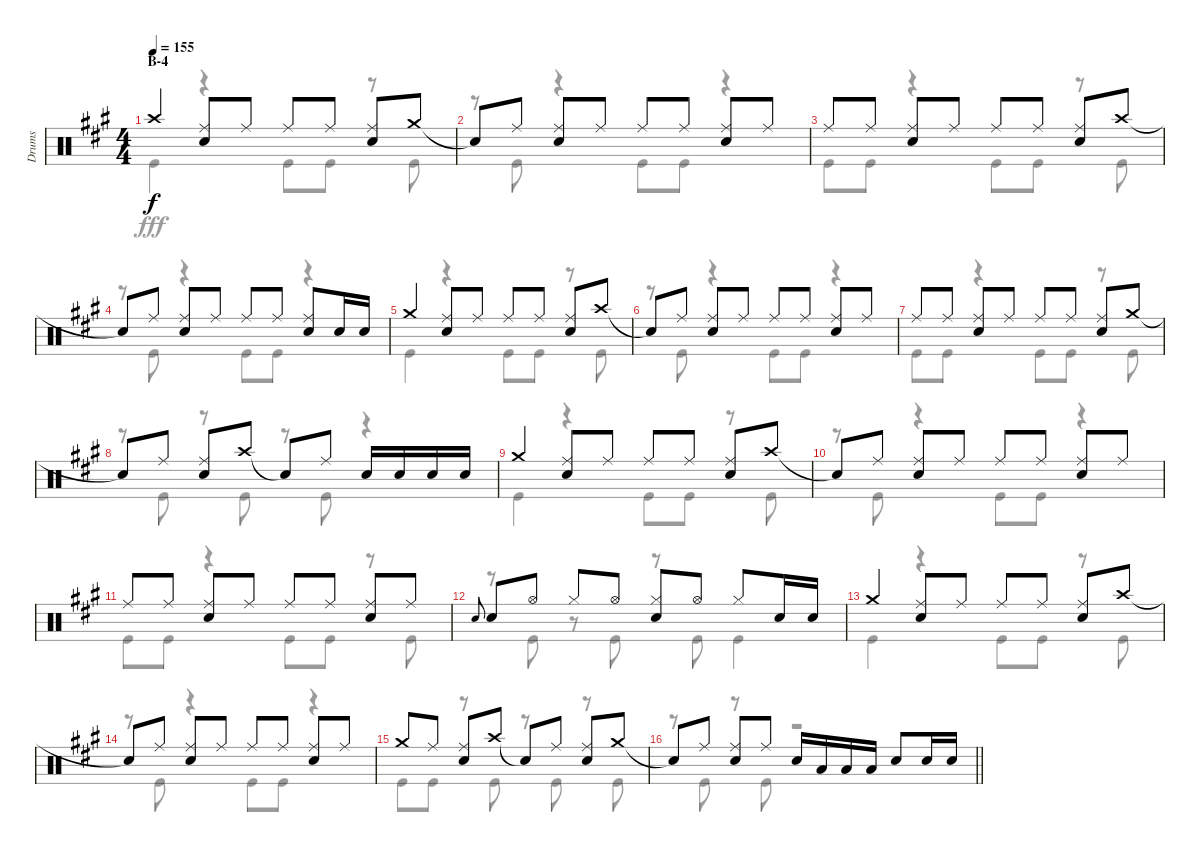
\track ("Drums" "Drums") {instrument percussion}
\staff {score}
\articulation defaults
\voice
\ts (4 4)
\section ("" "B-4")
\tempo 155
\clef neutral
\ks a "Crash high (hit)".4{dy f}
("Ride (middle)" "Snare (hit) 2").8 "Ride (middle)".8 "Ride (middle)".8 "Ride (middle)".8 ("Ride (middle)" "Snare (hit) 2").8 "Crash medium (hit)".8 |
"Snare (hit)"{t}.8 "Ride (middle)".8 ("Ride (middle)" "Snare (hit) 2").8 "Ride (middle)".8 "Ride (middle)".8 "Ride (middle)".8 ("Ride (middle)" "Snare (hit) 2").8 "Ride (middle)".8 |
"Ride (middle)".8 "Ride (middle)".8 ("Ride (middle)" "Snare (hit) 2").8 "Ride (middle)".8 "Ride (middle)".8 "Ride (middle)".8 ("Ride (middle)" "Snare (hit) 2").8 "Crash high (hit)".8 |
"Snare (hit)"{t}.8 "Ride (middle)".8 ("Ride (middle)" "Snare (hit) 2").8 "Ride (middle)".8 "Ride (middle)".8 "Ride (middle)".8 ("Ride (middle)" "Snare (hit) 2").8 "Snare (hit) 2".16 "Snare (hit) 2".16 |
"Crash medium (hit)".4 ("Ride (middle)" "Snare (hit) 2").8 "Ride (middle)".8 "Ride (middle)".8 "Ride (middle)".8 ("Ride (middle)" "Snare (hit) 2").8 "Crash high (hit)".8 |
"Snare (hit)"{t}.8 "Ride (middle)".8 ("Ride (middle)" "Snare (hit) 2").8 "Ride (middle)".8 "Ride (middle)".8 "Ride (middle)".8 ("Ride (middle)" "Snare (hit) 2").8 "Ride (middle)".8 |
"Ride (middle)".8 "Ride (middle)".8 ("Ride (middle)" "Snare (hit) 2").8 "Ride (middle)".8 "Ride (middle)".8 "Ride (middle)".8 ("Ride (middle)" "Snare (hit) 2").8 "Crash medium (hit)".8 |
"Snare (hit)"{t}.8 "Ride (middle)".8 ("Ride (middle)" "Snare (hit) 2").8 "Crash high (hit)".8 "Snare (hit)"{t}.8 "Ride (middle)".8 "Snare (hit) 2".16 "Snare (hit) 2".16 "Snare (hit) 2".16 "Snare (hit) 2".16 |
"Crash medium (hit)".4 ("Ride (middle)" "Snare (hit) 2").8 "Ride (middle)".8 "Ride (middle)".8 "Ride (middle)".8 ("Ride (middle)" "Snare (hit) 2").8 "Crash high (hit)".8 |
"Snare (hit)"{t}.8 "Ride (middle)".8 ("Ride (middle)" "Snare (hit) 2").8 "Ride (middle)".8 "Ride (middle)".8 "Ride (middle)".8 ("Ride (middle)" "Snare (hit) 2").8 "Ride (middle)".8 |
"Ride (middle)".8 "Ride (middle)".8 ("Ride (middle)" "Snare (hit) 2").8 "Ride (middle)".8 "Ride (middle)".8 "Ride (middle)".8 ("Ride (middle)" "Snare (hit) 2").8 "Ride (middle)".8 |
"Snare (hit) 2".8{gr onbeat} "Snare (hit) 2".8 "Hi-Hat (open)".8 "Hi-Hat (closed)".8 "Hi-Hat (open)".8 ("Hi-Hat (closed)" "Snare (hit) 2").8 "Hi-Hat (open)".8 "Hi-Hat (closed)".8 "Snare (hit) 2".16 "Snare (hit) 2".16 |
"Crash medium (hit)".4 ("Ride (middle)" "Snare (hit) 2").8 "Ride (middle)".8 "Ride (middle)".8 "Ride (middle)".8 ("Ride (middle)" "Snare (hit) 2").8 "Crash high (hit)".8 |
"Snare (hit)"{t}.8 "Ride (middle)".8 ("Ride (middle)" "Snare (hit) 2").8 "Ride (middle)".8 "Ride (middle)".8 "Ride (middle)".8 ("Ride (middle)" "Snare (hit) 2").8 "Ride (middle)".8 |
"Crash medium (hit)".8 "Ride (middle)".8 ("Ride (middle)" "Snare (hit) 2").8 "Crash high (hit)".8 "Snare (hit)"{t}.8 "Ride (middle)".8 ("Ride (middle)" "Snare (hit) 2").8 "Crash medium (hit)".8 |
\barLineRight lightlight "Snare (hit)"{t}.8 "Ride (middle)".8
("Ride (middle)" "Snare (hit) 2").8 "Ride (middle)".8 "Snare (hit) 2".16 "Low Tom (hit)".16 "Low Tom (hit)".16 "Low Tom (hit)".16 "Snare (hit) 2".8 "Snare (hit) 2".16 "Snare (hit) 2".16
\voice
\clef neutral
\ottava regular
\simile none
\ks a "Kick (hit)".4{dy fff}
r.4 "Kick (hit)".8 "Kick (hit)".8 r.8 "Kick (hit)".8 |
r.8 "Kick (hit)".8 r.4 "Kick (hit)".8 "Kick (hit)".8 r.4 |
"Kick (hit)".8 "Kick (hit)".8 r.4 "Kick (hit)".8 "Kick (hit)".8 r.8 "Kick (hit)".8 |
r.8 "Kick (hit)".8 r.4 "Kick (hit)".8 "Kick (hit)".8 r.4 |
"Kick (hit)".4 r.4 "Kick (hit)".8 "Kick (hit)".8 r.8 "Kick (hit)".8 |
r.8 "Kick (hit)".8 r.4 "Kick (hit)".8 "Kick (hit)".8 r.4 |
"Kick (hit)".8 "Kick (hit)".8 r.4 "Kick (hit)".8 "Kick (hit)".8 r.8 "Kick (hit)".8 |
r.8 "Kick (hit)".8 r.8 "Kick (hit)".8 r.8 "Kick (hit)".8 r.4 |
"Kick (hit)".4 r.4 "Kick (hit)".8 "Kick (hit)".8 r.8 "Kick (hit)".8 |
r.8 "Kick (hit)".8 r.4 "Kick (hit)".8 "Kick (hit)".8 r.4 |
"Kick (hit)".8 "Kick (hit)".8 r.4 "Kick (hit)".8 "Kick (hit)".8 r.8 "Kick (hit)".8 |
r.8 "Kick (hit)".8 r.8 "Kick (hit)".8 r.8 "Kick (hit)".8 "Kick (hit)".4 |
"Kick (hit)".4 r.4 "Kick (hit)".8 "Kick (hit)".8 r.8 "Kick (hit)".8 |
r.8 "Kick (hit)".8 r.4 "Kick (hit)".8 "Kick (hit)".8 r.4 |
"Kick (hit)".8 "Kick (hit)".8 r.8 "Kick (hit)".8 r.8 "Kick (hit)".8 r.8 "Kick (hit)".8 |
\barLineRight lightlight
r.8 "Kick (hit)".8 r.8 "Kick (hit)".8 r.2
